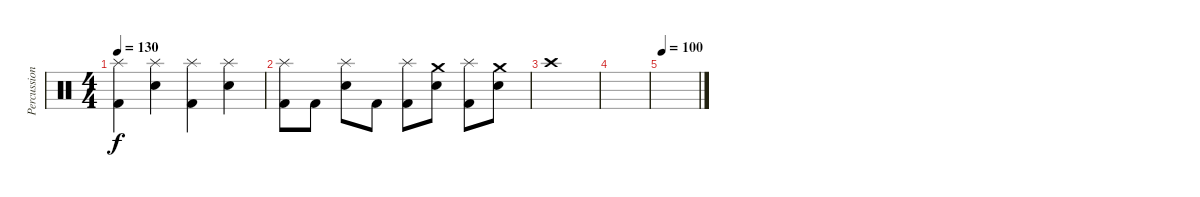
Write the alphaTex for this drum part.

\track ("Percussions" "Percussion") {instrument percussion}
\staff {score}
\articulation defaults
\ts (4 4)
\tempo 130
\clef neutral
\ks c
("Splash (hit)" "Kick (hit) 2").4{dy f} ("Splash (hit)" "Electric Snare (hit)").4 ("Splash (hit)" "Kick (hit) 2").4 ("Splash (hit)" "Electric Snare (hit)").4 |
("Splash (hit)" "Kick (hit) 2").8 "Kick (hit) 2".8 ("Splash (hit)" "Electric Snare (hit)").8 "Kick (hit) 2".8 ("Splash (hit)" "Kick (hit) 2").8 ("Crash medium (hit)" "Electric Snare (hit)").8 ("Splash (hit)" "Kick (hit) 2").8 ("Crash medium (hit)" "Electric Snare (hit)").8 |
"Crash high (hit)".1 |
|
\tempo 100
